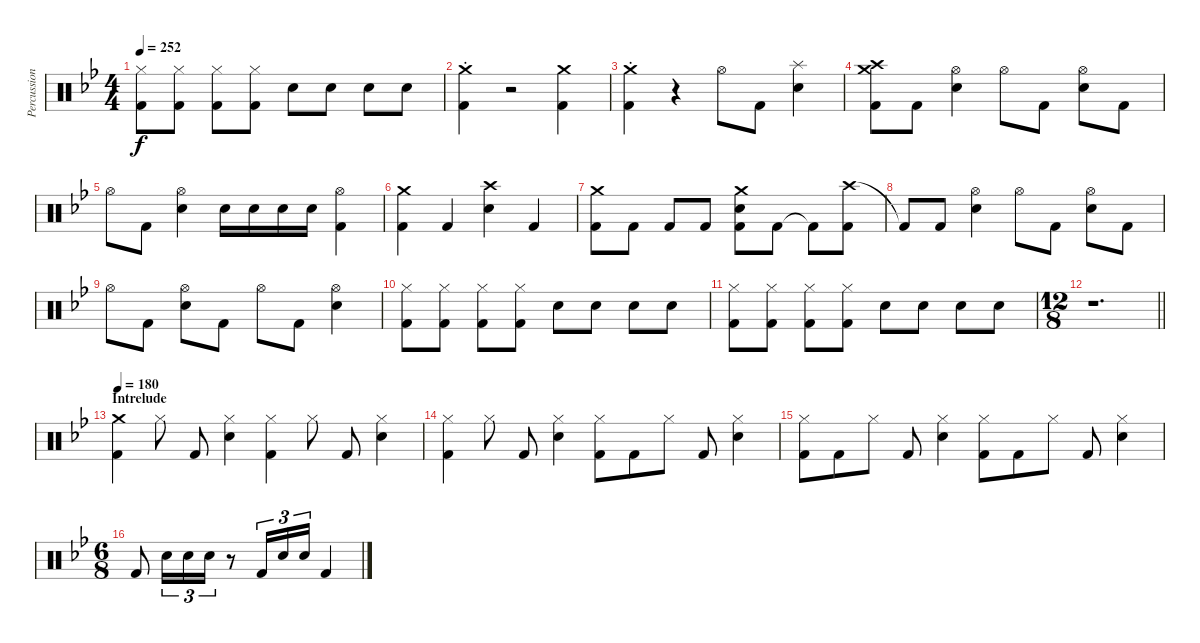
\track ("Percussion" "Percussion") {instrument percussion}
\staff {score}
\articulation defaults
\ts (4 4)
\tempo 252
\clef neutral
\ks bb
("Hi-Hat (closed)" "Kick (hit) 2").8{dy f} ("Hi-Hat (closed)" "Kick (hit) 2").8 ("Hi-Hat (closed)" "Kick (hit) 2").8 ("Hi-Hat (closed)" "Kick (hit) 2").8 "Electric Snare (hit)".8 "Electric Snare (hit)".8 "Electric Snare (hit)".8 "Electric Snare (hit)".8 |
("Crash medium (hit)"{st} "Kick (hit) 2").4 r.2{volume 0} ("Crash medium (hit)" "Kick (hit) 2").4{volume 14} |
("Crash medium (hit)"{st} "Kick (hit) 2").4 r.4{volume 0} "Hi-Hat (open)".8{volume 14} "Kick (hit) 2".8 ("Splash (hit)" "Electric Snare (hit)").4 |
("Crash medium (hit)" "Crash high (hit)" "Kick (hit) 2").8 "Kick (hit) 2".8 ("Hi-Hat (open)" "Electric Snare (hit)").4 "Hi-Hat (open)".8 "Kick (hit) 2".8 ("Hi-Hat (open)" "Electric Snare (hit)").8 "Kick (hit) 2".8 |
"Hi-Hat (open)".8 "Kick (hit) 2".8 ("Hi-Hat (open)" "Electric Snare (hit)").4 "Electric Snare (hit)".16 "Electric Snare (hit)".16 "Electric Snare (hit)".16 "Electric Snare (hit)".16 ("Hi-Hat (open)" "Kick (hit) 2").4 |
("Crash medium (hit)" "Kick (hit) 2").4 "Kick (hit) 2".4 ("Crash high (hit)" "Electric Snare (hit)").4 "Kick (hit) 2".4 |
("Crash medium (hit)" "Kick (hit) 2").8 "Kick (hit) 2".8 "Kick (hit) 2".8 "Kick (hit) 2".8 ("Crash medium (hit)" "Electric Snare (hit)" "Kick (hit) 2").8 "Kick (hit) 2".8 "Kick (hit) 2"{t}.8 ("Crash high (hit)" "Kick (hit) 2").8 |
"Kick (hit) 2"{t}.8 "Kick (hit) 2".8 ("Hi-Hat (open)" "Electric Snare (hit)").4 "Hi-Hat (open)".8 "Kick (hit) 2".8 ("Hi-Hat (open)" "Electric Snare (hit)").8 "Kick (hit) 2".8 |
"Hi-Hat (open)".8 "Kick (hit) 2".8 ("Hi-Hat (open)" "Electric Snare (hit)").8 "Kick (hit) 2".8 "Hi-Hat (open)".8 "Kick (hit) 2".8 ("Hi-Hat (open)" "Electric Snare (hit)").4 |
("Hi-Hat (closed)" "Kick (hit) 2").8 ("Hi-Hat (closed)" "Kick (hit) 2").8 ("Hi-Hat (closed)" "Kick (hit) 2").8 ("Hi-Hat (closed)" "Kick (hit) 2").8 "Electric Snare (hit)".8 "Electric Snare (hit)".8 "Electric Snare (hit)".8 "Electric Snare (hit)".8 |
("Hi-Hat (closed)" "Kick (hit) 2").8 ("Hi-Hat (closed)" "Kick (hit) 2").8 ("Hi-Hat (closed)" "Kick (hit) 2").8 ("Hi-Hat (closed)" "Kick (hit) 2").8 "Electric Snare (hit)".8 "Electric Snare (hit)".8 "Electric Snare (hit)".8 "Electric Snare (hit)".8 |
\ts (12 8)
\barLineRight lightlight
r.1{d} |
\section ("" "Intrelude")
\tempo 180
("Crash medium (hit)" "Kick (hit) 2").4{volume 11} "Hi-Hat (closed)".8 "Kick (hit) 2".8 ("Hi-Hat (closed)" "Electric Snare (hit)").4 ("Hi-Hat (closed)" "Kick (hit) 2").4 "Hi-Hat (closed)".8 "Kick (hit) 2".8 ("Hi-Hat (closed)" "Electric Snare (hit)").4 |
("Hi-Hat (closed)" "Kick (hit) 2").4 "Hi-Hat (closed)".8 "Kick (hit) 2".8 ("Hi-Hat (closed)" "Electric Snare (hit)").4 ("Hi-Hat (closed)" "Kick (hit) 2").8 "Kick (hit) 2".8 "Hi-Hat (closed)".8 "Kick (hit) 2".8 ("Hi-Hat (closed)" "Electric Snare (hit)").4 |
("Hi-Hat (closed)" "Kick (hit) 2").8 "Kick (hit) 2".8 "Hi-Hat (closed)".8 "Kick (hit) 2".8 ("Hi-Hat (closed)" "Electric Snare (hit)").4 ("Hi-Hat (closed)" "Kick (hit) 2").8 "Kick (hit) 2".8 "Hi-Hat (closed)".8 "Kick (hit) 2".8 ("Hi-Hat (closed)" "Electric Snare (hit)").4 |
\ts (6 8)
"Kick (hit) 2".8 "Electric Snare (hit)".16{tu (3 2)} "Electric Snare (hit)".16{tu (3 2)} "Electric Snare (hit)".16{tu (3 2)} r.8 "Kick (hit) 2".16{tu (3 2)} "Electric Snare (hit)".16{tu (3 2)} "Electric Snare (hit)".16{tu (3 2)} "Kick (hit) 2".4
